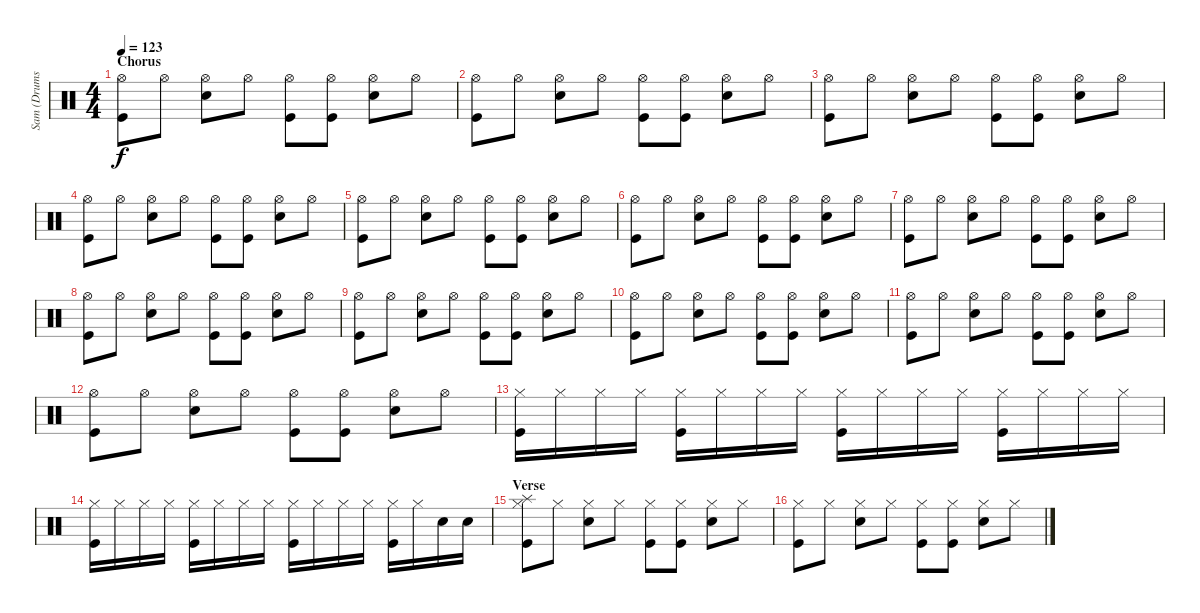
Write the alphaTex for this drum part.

\track ("Sam (Drums)" "Sam (Drums") {instrument percussion}
\staff {score}
\articulation defaults
\ts (4 4)
\section ("" "Chorus")
\tempo 123
\clef neutral
\ks c
("Hi-Hat (open)" "Kick (hit)").8{dy f} "Hi-Hat (open)".8 ("Hi-Hat (open)" "Snare (hit) 2").8 "Hi-Hat (open)".8 ("Hi-Hat (open)" "Kick (hit)").8 ("Hi-Hat (open)" "Kick (hit)").8 ("Hi-Hat (open)" "Snare (hit) 2").8 "Hi-Hat (open)".8 |
("Hi-Hat (open)" "Kick (hit)").8 "Hi-Hat (open)".8 ("Hi-Hat (open)" "Snare (hit) 2").8 "Hi-Hat (open)".8 ("Hi-Hat (open)" "Kick (hit)").8 ("Hi-Hat (open)" "Kick (hit)").8 ("Hi-Hat (open)" "Snare (hit) 2").8 "Hi-Hat (open)".8 |
("Hi-Hat (open)" "Kick (hit)").8 "Hi-Hat (open)".8 ("Hi-Hat (open)" "Snare (hit) 2").8 "Hi-Hat (open)".8 ("Hi-Hat (open)" "Kick (hit)").8 ("Hi-Hat (open)" "Kick (hit)").8 ("Hi-Hat (open)" "Snare (hit) 2").8 "Hi-Hat (open)".8 |
("Hi-Hat (open)" "Kick (hit)").8 "Hi-Hat (open)".8 ("Hi-Hat (open)" "Snare (hit) 2").8 "Hi-Hat (open)".8 ("Hi-Hat (open)" "Kick (hit)").8 ("Hi-Hat (open)" "Kick (hit)").8 ("Hi-Hat (open)" "Snare (hit) 2").8 "Hi-Hat (open)".8 |
("Hi-Hat (open)" "Kick (hit)").8 "Hi-Hat (open)".8 ("Hi-Hat (open)" "Snare (hit) 2").8 "Hi-Hat (open)".8 ("Hi-Hat (open)" "Kick (hit)").8 ("Hi-Hat (open)" "Kick (hit)").8 ("Hi-Hat (open)" "Snare (hit) 2").8 "Hi-Hat (open)".8 |
("Hi-Hat (open)" "Kick (hit)").8 "Hi-Hat (open)".8 ("Hi-Hat (open)" "Snare (hit) 2").8 "Hi-Hat (open)".8 ("Hi-Hat (open)" "Kick (hit)").8 ("Hi-Hat (open)" "Kick (hit)").8 ("Hi-Hat (open)" "Snare (hit) 2").8 "Hi-Hat (open)".8 |
("Hi-Hat (open)" "Kick (hit)").8 "Hi-Hat (open)".8 ("Hi-Hat (open)" "Snare (hit) 2").8 "Hi-Hat (open)".8 ("Hi-Hat (open)" "Kick (hit)").8 ("Hi-Hat (open)" "Kick (hit)").8 ("Hi-Hat (open)" "Snare (hit) 2").8 "Hi-Hat (open)".8 |
("Hi-Hat (open)" "Kick (hit)").8 "Hi-Hat (open)".8 ("Hi-Hat (open)" "Snare (hit) 2").8 "Hi-Hat (open)".8 ("Hi-Hat (open)" "Kick (hit)").8 ("Hi-Hat (open)" "Kick (hit)").8 ("Hi-Hat (open)" "Snare (hit) 2").8 "Hi-Hat (open)".8 |
("Hi-Hat (open)" "Kick (hit)").8 "Hi-Hat (open)".8 ("Hi-Hat (open)" "Snare (hit) 2").8 "Hi-Hat (open)".8 ("Hi-Hat (open)" "Kick (hit)").8 ("Hi-Hat (open)" "Kick (hit)").8 ("Hi-Hat (open)" "Snare (hit) 2").8 "Hi-Hat (open)".8 |
("Hi-Hat (open)" "Kick (hit)").8 "Hi-Hat (open)".8 ("Hi-Hat (open)" "Snare (hit) 2").8 "Hi-Hat (open)".8 ("Hi-Hat (open)" "Kick (hit)").8 ("Hi-Hat (open)" "Kick (hit)").8 ("Hi-Hat (open)" "Snare (hit) 2").8 "Hi-Hat (open)".8 |
("Hi-Hat (open)" "Kick (hit)").8 "Hi-Hat (open)".8 ("Hi-Hat (open)" "Snare (hit) 2").8 "Hi-Hat (open)".8 ("Hi-Hat (open)" "Kick (hit)").8 ("Hi-Hat (open)" "Kick (hit)").8 ("Hi-Hat (open)" "Snare (hit) 2").8 "Hi-Hat (open)".8 |
("Hi-Hat (open)" "Kick (hit)").8 "Hi-Hat (open)".8 ("Hi-Hat (open)" "Snare (hit) 2").8 "Hi-Hat (open)".8 ("Hi-Hat (open)" "Kick (hit)").8 ("Hi-Hat (open)" "Kick (hit)").8 ("Hi-Hat (open)" "Snare (hit) 2").8 "Hi-Hat (open)".8 |
("Hi-Hat (closed)" "Kick (hit)").16 "Hi-Hat (closed)".16 "Hi-Hat (closed)".16 "Hi-Hat (closed)".16 ("Hi-Hat (closed)" "Kick (hit)").16 "Hi-Hat (closed)".16 "Hi-Hat (closed)".16 "Hi-Hat (closed)".16 ("Hi-Hat (closed)" "Kick (hit)").16 "Hi-Hat (closed)".16 "Hi-Hat (closed)".16 "Hi-Hat (closed)".16 ("Hi-Hat (closed)" "Kick (hit)").16 "Hi-Hat (closed)".16 "Hi-Hat (closed)".16 "Hi-Hat (closed)".16 |
("Hi-Hat (closed)" "Kick (hit)").16 "Hi-Hat (closed)".16 "Hi-Hat (closed)".16 "Hi-Hat (closed)".16 ("Hi-Hat (closed)" "Kick (hit)").16 "Hi-Hat (closed)".16 "Hi-Hat (closed)".16 "Hi-Hat (closed)".16 ("Hi-Hat (closed)" "Kick (hit)").16 "Hi-Hat (closed)".16 "Hi-Hat (closed)".16 "Hi-Hat (closed)".16 ("Hi-Hat (closed)" "Kick (hit)").16 "Hi-Hat (closed)".16 "Snare (hit) 2".16 "Snare (hit) 2".16 |
\section ("" "Verse")
("Splash (hit)" "Hi-Hat (closed)" "Kick (hit)").8 "Hi-Hat (closed)".8 ("Hi-Hat (closed)" "Snare (hit) 2").8 "Hi-Hat (closed)".8 ("Hi-Hat (closed)" "Kick (hit)").8 ("Hi-Hat (closed)" "Kick (hit)").8 ("Hi-Hat (closed)" "Snare (hit) 2").8 "Hi-Hat (closed)".8 |
("Hi-Hat (closed)" "Kick (hit)").8 "Hi-Hat (closed)".8 ("Hi-Hat (closed)" "Snare (hit) 2").8 "Hi-Hat (closed)".8 ("Hi-Hat (closed)" "Kick (hit)").8 ("Hi-Hat (closed)" "Kick (hit)").8 ("Hi-Hat (closed)" "Snare (hit) 2").8 "Hi-Hat (closed)".8
